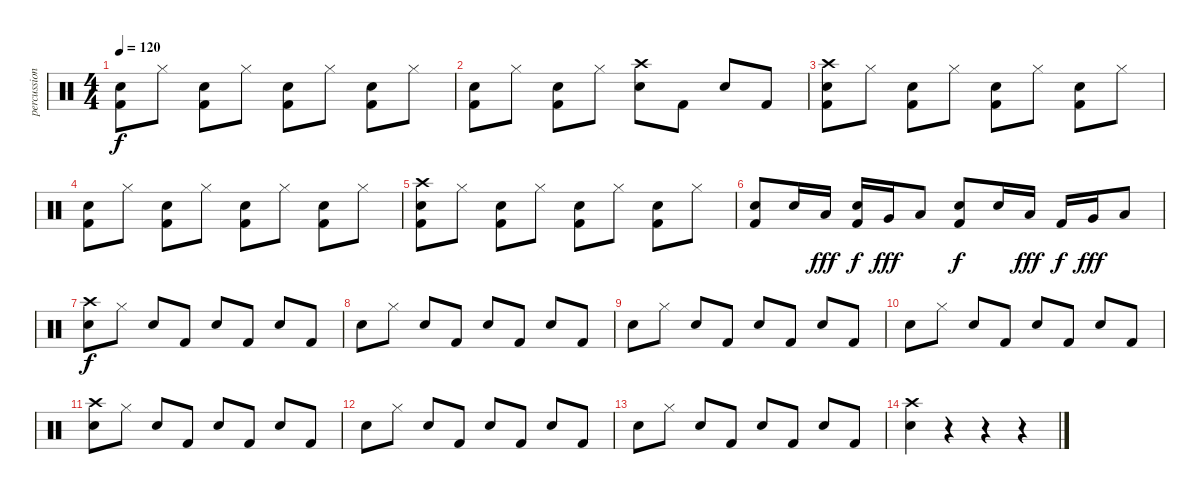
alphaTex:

\track ("percussion" "percussion") {instrument percussion}
\staff {score}
\articulation defaults
\ts (4 4)
\tempo 120
\clef neutral
\ks c
("Snare (hit) 2" "Kick (hit) 2").8{dy f} "Hi-Hat (closed)".8 ("Snare (hit) 2" "Kick (hit) 2").8 "Hi-Hat (closed)".8 ("Snare (hit) 2" "Kick (hit) 2").8 "Hi-Hat (closed)".8 ("Snare (hit) 2" "Kick (hit) 2").8 "Hi-Hat (closed)".8 |
("Snare (hit) 2" "Kick (hit) 2").8 "Hi-Hat (closed)".8 ("Snare (hit) 2" "Kick (hit) 2").8 "Hi-Hat (closed)".8 ("Crash high (hit)" "Snare (hit) 2").8 "Kick (hit) 2".8 "Snare (hit) 2".8 "Kick (hit) 2".8 |
("Crash high (hit)" "Snare (hit) 2" "Kick (hit) 2").8 "Hi-Hat (closed)".8 ("Snare (hit) 2" "Kick (hit) 2").8 "Hi-Hat (closed)".8 ("Snare (hit) 2" "Kick (hit) 2").8 "Hi-Hat (closed)".8 ("Snare (hit) 2" "Kick (hit) 2").8 "Hi-Hat (closed)".8 |
("Snare (hit) 2" "Kick (hit) 2").8 "Hi-Hat (closed)".8 ("Snare (hit) 2" "Kick (hit) 2").8 "Hi-Hat (closed)".8 ("Snare (hit) 2" "Kick (hit) 2").8 "Hi-Hat (closed)".8 ("Snare (hit) 2" "Kick (hit) 2").8 "Hi-Hat (closed)".8 |
("Crash high (hit)" "Snare (hit) 2" "Kick (hit) 2").8 "Hi-Hat (closed)".8 ("Snare (hit) 2" "Kick (hit) 2").8 "Hi-Hat (closed)".8 ("Snare (hit) 2" "Kick (hit) 2").8 "Hi-Hat (closed)".8 ("Snare (hit) 2" "Kick (hit) 2").8 "Hi-Hat (closed)".8 |
("Snare (hit) 2" "Kick (hit) 2").8 "Snare (hit) 2".16 "Low Tom (hit)".16{dy fff} ("Snare (hit) 2" "Kick (hit) 2").16{dy f} "Very Low Tom (hit)".16{dy fff} "Low Tom (hit)".8 ("Snare (hit) 2" "Kick (hit) 2").8{dy f} "Snare (hit) 2".16 "Low Tom (hit)".16{dy fff} "Kick (hit) 2".16{dy f} "Very Low Tom (hit)".16{dy fff} "Low Tom (hit)".8 |
("Crash high (hit)" "Snare (hit) 2").8{dy f} "Hi-Hat (closed)".8 "Snare (hit) 2".8 "Kick (hit) 2".8 "Snare (hit) 2".8 "Kick (hit) 2".8 "Snare (hit) 2".8 "Kick (hit) 2".8 |
"Snare (hit) 2".8 "Hi-Hat (closed)".8 "Snare (hit) 2".8 "Kick (hit) 2".8 "Snare (hit) 2".8 "Kick (hit) 2".8 "Snare (hit) 2".8 "Kick (hit) 2".8 |
"Snare (hit) 2".8 "Hi-Hat (closed)".8 "Snare (hit) 2".8 "Kick (hit) 2".8 "Snare (hit) 2".8 "Kick (hit) 2".8 "Snare (hit) 2".8 "Kick (hit) 2".8 |
"Snare (hit) 2".8 "Hi-Hat (closed)".8 "Snare (hit) 2".8 "Kick (hit) 2".8 "Snare (hit) 2".8 "Kick (hit) 2".8 "Snare (hit) 2".8 "Kick (hit) 2".8 |
("Crash high (hit)" "Snare (hit) 2").8 "Hi-Hat (closed)".8 "Snare (hit) 2".8 "Kick (hit) 2".8 "Snare (hit) 2".8 "Kick (hit) 2".8 "Snare (hit) 2".8 "Kick (hit) 2".8 |
"Snare (hit) 2".8 "Hi-Hat (closed)".8 "Snare (hit) 2".8 "Kick (hit) 2".8 "Snare (hit) 2".8 "Kick (hit) 2".8 "Snare (hit) 2".8 "Kick (hit) 2".8 |
"Snare (hit) 2".8 "Hi-Hat (closed)".8 "Snare (hit) 2".8 "Kick (hit) 2".8 "Snare (hit) 2".8 "Kick (hit) 2".8 "Snare (hit) 2".8 "Kick (hit) 2".8 |
("Crash high (hit)" "Snare (hit) 2").4 r.4 r.4 r.4
